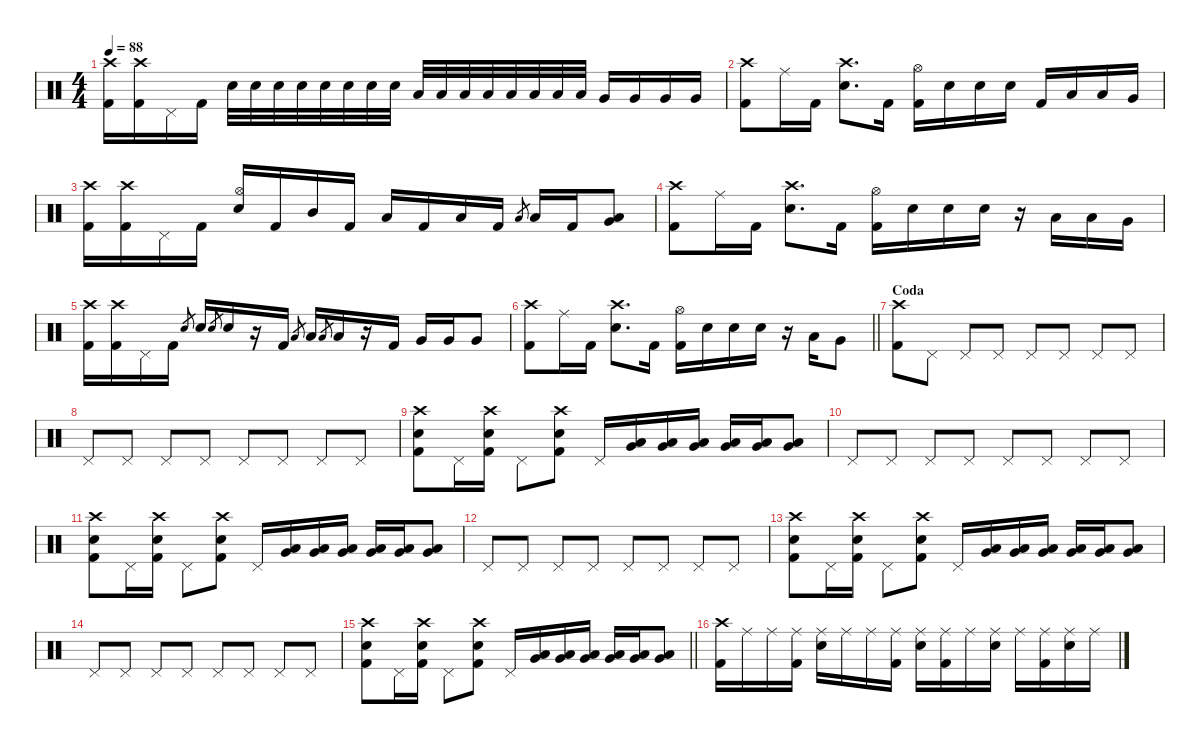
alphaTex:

\defaultSystemsLayout 4
\hideDynamics
\bracketExtendMode nobrackets
\singleTrackTrackNamePolicy hidden
\multiTrackTrackNamePolicy hidden
\firstSystemTrackNameMode fullname
\firstSystemTrackNameOrientation horizontal
\otherSystemsTrackNameOrientation horizontal
\track ("Drums" "drm.") {instrument percussion}
\staff {score}
\articulation defaults
\ts (4 4)
\tempo 88
\clef neutral
\ks c
("Crash high (hit)" "Kick (hit) 2").16{dy f beam Down} ("Crash high (hit)" "Kick (hit) 2").16{beam Down} "Pedal Hi-Hat (hit)".16{beam Down} "Kick (hit) 2".16{beam Down} "Snare (hit) 2".32{beam Down} "Snare (hit) 2".32{beam Down} "Snare (hit) 2".32{beam Down} "Snare (hit) 2".32{beam Down} "Snare (hit) 2".32{beam Down} "Snare (hit) 2".32{beam Down} "Snare (hit) 2".32{beam Down} "Snare (hit) 2".32{beam Down} "Low Tom (hit)".32{beam Up} "Low Tom (hit)".32{beam Up} "Low Tom (hit)".32{beam Up} "Low Tom (hit)".32{beam Up} "Low Tom (hit)".32{beam Up} "Low Tom (hit)".32{beam Up} "Low Tom (hit)".32{beam Up} "Low Tom (hit)".32{beam Up} "Very Low Tom (hit)".16{beam Up} "Very Low Tom (hit)".16{beam Up} "Very Low Tom (hit)".16{beam Up} "Very Low Tom (hit)".16{beam Up} |
("Crash high (hit)" "Kick (hit) 2").8{beam Down} "Ride (middle)".16{beam Down} "Kick (hit) 2".16{beam Down} ("Crash high (hit)" "Snare (hit) 2").8{d beam Down} "Kick (hit) 2".16{beam Down} ("Hi-Hat (open)" "Kick (hit) 2").16{beam Down} "Snare (hit) 2".16{beam Down} "Snare (hit) 2".16{beam Down} "Snare (hit) 2".16{beam Down} "Kick (hit) 2".16{beam Up} "Low Tom (hit)".16{beam Up} "Low Tom (hit)".16{beam Up} "Very Low Tom (hit)".16{beam Up} |
("Crash high (hit)" "Kick (hit) 2").16{beam Down} ("Crash high (hit)" "Kick (hit) 2").16{beam Down} "Pedal Hi-Hat (hit)".16{beam Down} "Kick (hit) 2".16{beam Down} ("Hi-Hat (open)" "Snare (hit) 2").16{beam Up} "Kick (hit) 2".16{beam Up} "Mid Tom (hit)".16{beam Up} "Kick (hit) 2".16{beam Up} "Low Tom (hit)".16{beam Up} "Kick (hit) 2".16{beam Up} "Low Tom (hit)".16{beam Up} "Kick (hit) 2".16{beam Up} "Low Tom (hit)".8{gr dy mf beam Up} "Low Tom (hit)".16{dy f beam Up} "Kick (hit) 2".16{beam Up} ("Low Tom (hit)" "Very Low Tom (hit)").8{beam Up} |
("Crash high (hit)" "Kick (hit) 2").8{beam Down} "Ride (middle)".16{beam Down} "Kick (hit) 2".16{beam Down} ("Crash high (hit)" "Snare (hit) 2").8{d beam Down} "Kick (hit) 2".16{beam Down} ("Hi-Hat (open)" "Kick (hit) 2").16{beam Down} "Snare (hit) 2".16{beam Down} "Snare (hit) 2".16{beam Down} "Snare (hit) 2".16{beam Down} r.16{beam Down} "Low Tom (hit)".16{beam Up} "Low Tom (hit)".16{beam Up} "Very Low Tom (hit)".16{beam Up} |
("Crash high (hit)" "Kick (hit) 2").16{beam Down} ("Crash high (hit)" "Kick (hit) 2").16{beam Down} "Pedal Hi-Hat (hit)".16{beam Down} "Kick (hit) 2".16{beam Down} "Snare (hit) 2".8{gr dy mf beam Up} "Snare (hit) 2".16{dy f beam Up} "Snare (hit) 2".8{gr dy mf beam Up} "Snare (hit) 2".16{dy f beam Up} r.16{beam Up} "Kick (hit) 2".16{beam Up} "Low Tom (hit)".8{gr dy mf beam Up} "Low Tom (hit)".16{dy f beam Up} "Low Tom (hit)".8{gr dy mf beam Up} "Low Tom (hit)".16{dy f beam Up} r.16{beam Up} "Kick (hit) 2".16{beam Up} "Very Low Tom (hit)".16{beam Up} "Very Low Tom (hit)".16{beam Up} "Very Low Tom (hit)".8{beam Up} |
\barLineRight lightlight
("Crash high (hit)" "Kick (hit) 2").8{beam Down} "Ride (middle)".16{beam Down} "Kick (hit) 2".16{beam Down} ("Crash high (hit)" "Snare (hit) 2").8{d beam Down} "Kick (hit) 2".16{beam Down} ("Hi-Hat (open)" "Kick (hit) 2").16{beam Down} "Snare (hit) 2".16{beam Down} "Snare (hit) 2".16{beam Down} "Snare (hit) 2".16{beam Down} r.16{beam Down} "Low Tom (hit)".16{beam Up} "Very Low Tom (hit)".8{beam Up} |
\section ("" "Coda")
("Crash high (hit)" "Kick (hit) 2").8{beam Down} "Pedal Hi-Hat (hit)".8{beam Down} "Pedal Hi-Hat (hit)".8{beam Up} "Pedal Hi-Hat (hit)".8{beam Up} "Pedal Hi-Hat (hit)".8{beam Up} "Pedal Hi-Hat (hit)".8{beam Up} "Pedal Hi-Hat (hit)".8{beam Up} "Pedal Hi-Hat (hit)".8{beam Up} |
"Pedal Hi-Hat (hit)".8{beam Up} "Pedal Hi-Hat (hit)".8{beam Up} "Pedal Hi-Hat (hit)".8{beam Up} "Pedal Hi-Hat (hit)".8{beam Up} "Pedal Hi-Hat (hit)".8{beam Up} "Pedal Hi-Hat (hit)".8{beam Up} "Pedal Hi-Hat (hit)".8{beam Up} "Pedal Hi-Hat (hit)".8{beam Up} |
("Crash high (hit)" "Snare (hit) 2" "Kick (hit) 2").8{beam Down} "Pedal Hi-Hat (hit)".16{beam Down} ("Crash high (hit)" "Snare (hit) 2" "Kick (hit) 2").16{beam Down} "Pedal Hi-Hat (hit)".8{beam Down} ("Crash high (hit)" "Snare (hit) 2" "Kick (hit) 2").8{beam Down} "Pedal Hi-Hat (hit)".16{beam Up} ("Low Tom (hit)" "Very Low Tom (hit)").16{beam Up} ("Low Tom (hit)" "Very Low Tom (hit)").16{beam Up} ("Low Tom (hit)" "Very Low Tom (hit)").16{beam Up} ("Low Tom (hit)" "Very Low Tom (hit)").16{beam Up} ("Low Tom (hit)" "Very Low Tom (hit)").16{beam Up} ("Low Tom (hit)" "Very Low Tom (hit)").8{beam Up} |
"Pedal Hi-Hat (hit)".8{beam Up} "Pedal Hi-Hat (hit)".8{beam Up} "Pedal Hi-Hat (hit)".8{beam Up} "Pedal Hi-Hat (hit)".8{beam Up} "Pedal Hi-Hat (hit)".8{beam Up} "Pedal Hi-Hat (hit)".8{beam Up} "Pedal Hi-Hat (hit)".8{beam Up} "Pedal Hi-Hat (hit)".8{beam Up} |
("Crash high (hit)" "Snare (hit) 2" "Kick (hit) 2").8{beam Down} "Pedal Hi-Hat (hit)".16{beam Down} ("Crash high (hit)" "Snare (hit) 2" "Kick (hit) 2").16{beam Down} "Pedal Hi-Hat (hit)".8{beam Down} ("Crash high (hit)" "Snare (hit) 2" "Kick (hit) 2").8{beam Down} "Pedal Hi-Hat (hit)".16{beam Up} ("Low Tom (hit)" "Very Low Tom (hit)").16{beam Up} ("Low Tom (hit)" "Very Low Tom (hit)").16{beam Up} ("Low Tom (hit)" "Very Low Tom (hit)").16{beam Up} ("Low Tom (hit)" "Very Low Tom (hit)").16{beam Up} ("Low Tom (hit)" "Very Low Tom (hit)").16{beam Up} ("Low Tom (hit)" "Very Low Tom (hit)").8{beam Up} |
"Pedal Hi-Hat (hit)".8{beam Up} "Pedal Hi-Hat (hit)".8{beam Up} "Pedal Hi-Hat (hit)".8{beam Up} "Pedal Hi-Hat (hit)".8{beam Up} "Pedal Hi-Hat (hit)".8{beam Up} "Pedal Hi-Hat (hit)".8{beam Up} "Pedal Hi-Hat (hit)".8{beam Up} "Pedal Hi-Hat (hit)".8{beam Up} |
("Crash high (hit)" "Snare (hit) 2" "Kick (hit) 2").8{beam Down} "Pedal Hi-Hat (hit)".16{beam Down} ("Crash high (hit)" "Snare (hit) 2" "Kick (hit) 2").16{beam Down} "Pedal Hi-Hat (hit)".8{beam Down} ("Crash high (hit)" "Snare (hit) 2" "Kick (hit) 2").8{beam Down} "Pedal Hi-Hat (hit)".16{beam Up} ("Low Tom (hit)" "Very Low Tom (hit)").16{beam Up} ("Low Tom (hit)" "Very Low Tom (hit)").16{beam Up} ("Low Tom (hit)" "Very Low Tom (hit)").16{beam Up} ("Low Tom (hit)" "Very Low Tom (hit)").16{beam Up} ("Low Tom (hit)" "Very Low Tom (hit)").16{beam Up} ("Low Tom (hit)" "Very Low Tom (hit)").8{beam Up} |
"Pedal Hi-Hat (hit)".8{beam Up} "Pedal Hi-Hat (hit)".8{beam Up} "Pedal Hi-Hat (hit)".8{beam Up} "Pedal Hi-Hat (hit)".8{beam Up} "Pedal Hi-Hat (hit)".8{beam Up} "Pedal Hi-Hat (hit)".8{beam Up} "Pedal Hi-Hat (hit)".8{beam Up} "Pedal Hi-Hat (hit)".8{beam Up} |
\barLineRight lightlight
("Crash high (hit)" "Snare (hit) 2" "Kick (hit) 2").8{beam Down} "Pedal Hi-Hat (hit)".16{beam Down} ("Crash high (hit)" "Snare (hit) 2" "Kick (hit) 2").16{beam Down} "Pedal Hi-Hat (hit)".8{beam Down} ("Crash high (hit)" "Snare (hit) 2" "Kick (hit) 2").8{beam Down} "Pedal Hi-Hat (hit)".16{beam Up} ("Low Tom (hit)" "Very Low Tom (hit)").16{beam Up} ("Low Tom (hit)" "Very Low Tom (hit)").16{beam Up} ("Low Tom (hit)" "Very Low Tom (hit)").16{beam Up} ("Low Tom (hit)" "Very Low Tom (hit)").16{beam Up} ("Low Tom (hit)" "Very Low Tom (hit)").16{beam Up} ("Low Tom (hit)" "Very Low Tom (hit)").8{beam Up} |
("Crash high (hit)" "Kick (hit) 2").16{beam Down} "Ride (middle)".16{beam Down} "Ride (middle)".16{beam Down} ("Ride (middle)" "Kick (hit) 2").16{beam Down} ("Ride (middle)" "Snare (hit) 2").16{beam Down} "Ride (middle)".16{beam Down} "Ride (middle)".16{beam Down} ("Ride (middle)" "Kick (hit) 2").16{beam Down} ("Ride (middle)" "Snare (hit) 2").16{beam Down} ("Ride (middle)" "Kick (hit) 2").16{beam Down} "Ride (middle)".16{beam Down} ("Ride (middle)" "Snare (hit) 2").16{beam Down} "Ride (middle)".16{beam Down} ("Ride (middle)" "Kick (hit) 2").16{beam Down} ("Ride (middle)" "Snare (hit) 2").16{beam Down} "Ride (middle)".16{beam Down}
